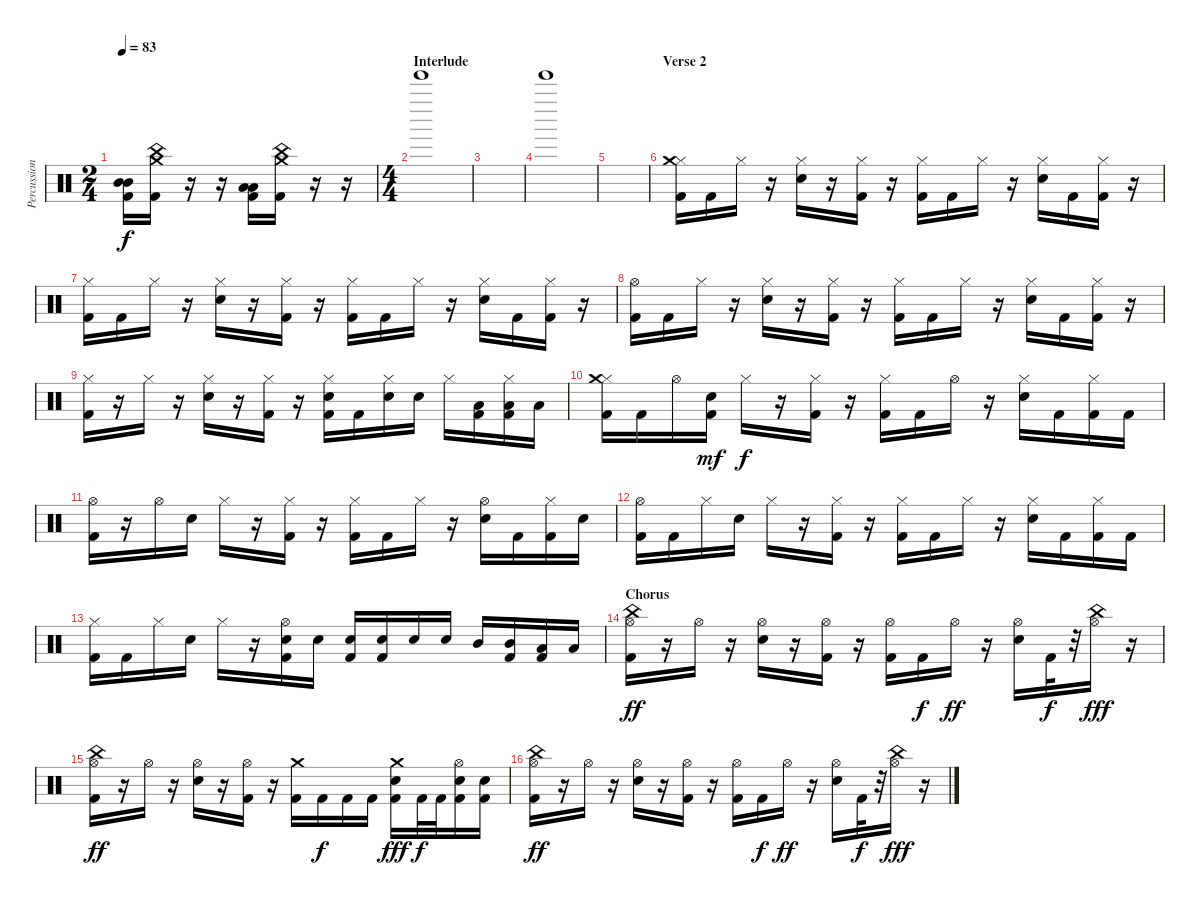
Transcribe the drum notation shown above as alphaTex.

\track ("Percussion" "Percussion") {instrument percussion}
\staff {score}
\articulation defaults
\ts (2 4)
\tempo 83
\clef neutral
\ks c
("Mid Tom (hit)" "Mid Tom (hit)" "Kick (hit) 2").16{dy f} ("Crash medium (hit)" "China (hit)" "Kick (hit) 2").16 r.16 r.16 ("Low Tom (hit)" "Low Tom (hit)" "Kick (hit) 2").16 ("China (hit)" "Crash medium (hit)" "Kick (hit) 2").16 r.16 r.16 |
\ts (4 4)
\section ("" "Interlude")
"Tinkle Bell (hit)".1 |
|
"Tinkle Bell (hit)".1 |
|
\section ("" "Verse 2")
("Hi-Hat (closed)" "Crash medium (hit)" "Kick (hit) 2").16 "Kick (hit) 2".16 "Hi-Hat (closed)".16 r.16 ("Hi-Hat (closed)" "Snare (hit) 2").16 r.16 ("Hi-Hat (closed)" "Kick (hit) 2").16 r.16 ("Hi-Hat (closed)" "Kick (hit) 2").16 "Kick (hit) 2".16 "Hi-Hat (closed)".16 r.16 ("Hi-Hat (closed)" "Snare (hit) 2").16 "Kick (hit) 2".16 ("Hi-Hat (closed)" "Kick (hit) 2").16 r.16 |
("Hi-Hat (closed)" "Kick (hit) 2").16 "Kick (hit) 2".16 "Hi-Hat (closed)".16 r.16 ("Hi-Hat (closed)" "Snare (hit) 2").16 r.16 ("Hi-Hat (closed)" "Kick (hit) 2").16 r.16 ("Hi-Hat (closed)" "Kick (hit) 2").16 "Kick (hit) 2".16 "Hi-Hat (closed)".16 r.16 ("Hi-Hat (closed)" "Snare (hit) 2").16 "Kick (hit) 2".16 ("Hi-Hat (closed)" "Kick (hit) 2").16 r.16 |
("Hi-Hat (open)" "Kick (hit) 2").16 "Kick (hit) 2".16 "Hi-Hat (closed)".16 r.16 ("Hi-Hat (closed)" "Snare (hit) 2").16 r.16 ("Hi-Hat (closed)" "Kick (hit) 2").16 r.16 ("Hi-Hat (closed)" "Kick (hit) 2").16 "Kick (hit) 2".16 "Hi-Hat (closed)".16 r.16 ("Hi-Hat (closed)" "Snare (hit) 2").16 "Kick (hit) 2".16 ("Hi-Hat (closed)" "Kick (hit) 2").16 r.16 |
("Hi-Hat (closed)" "Kick (hit) 2").16 r.16 "Hi-Hat (closed)".16 r.16 ("Hi-Hat (closed)" "Snare (hit) 2").16 r.16 ("Hi-Hat (closed)" "Kick (hit) 2").16 r.16 ("Hi-Hat (closed)" "Snare (hit) 2" "Kick (hit) 2").16 "Kick (hit) 2".16 ("Hi-Hat (closed)" "Snare (hit) 2").16 "Snare (hit) 2".16 "Hi-Hat (closed)".16 ("Low Tom (hit)" "Kick (hit) 2").16 ("Hi-Hat (closed)" "Low Tom (hit)" "Kick (hit) 2").16 "Low Tom (hit)".16 |
("Hi-Hat (closed)" "Crash medium (hit)" "Kick (hit) 2").16 "Kick (hit) 2".16 "Hi-Hat (open)".16 ("Snare (hit) 2" "Kick (hit) 2").16{dy mf} "Hi-Hat (closed)".16{dy f} r.16 ("Hi-Hat (closed)" "Kick (hit) 2").16 r.16 ("Hi-Hat (closed)" "Kick (hit) 2").16 "Kick (hit) 2".16 "Hi-Hat (open)".16 r.16 ("Hi-Hat (closed)" "Snare (hit) 2").16 "Kick (hit) 2".16 ("Hi-Hat (closed)" "Kick (hit) 2").16 "Kick (hit) 2".16 |
("Hi-Hat (open)" "Kick (hit) 2").16 r.16 "Hi-Hat (open)".16 "Snare (hit) 2".16 "Hi-Hat (closed)".16 r.16 ("Hi-Hat (closed)" "Kick (hit) 2").16 r.16 ("Hi-Hat (closed)" "Kick (hit) 2").16 "Kick (hit) 2".16 "Hi-Hat (closed)".16 r.16 ("Hi-Hat (open)" "Snare (hit) 2").16 "Kick (hit) 2".16 ("Hi-Hat (closed)" "Kick (hit) 2").16 "Snare (hit) 2".16 |
("Hi-Hat (open)" "Kick (hit) 2").16 "Kick (hit) 2".16 "Hi-Hat (closed)".16 "Snare (hit) 2".16 "Hi-Hat (closed)".16 r.16 ("Hi-Hat (closed)" "Kick (hit) 2").16 r.16 ("Hi-Hat (closed)" "Kick (hit) 2").16 "Kick (hit) 2".16 "Hi-Hat (closed)".16 r.16 ("Hi-Hat (closed)" "Snare (hit) 2").16 "Kick (hit) 2".16 ("Hi-Hat (closed)" "Kick (hit) 2").16 "Kick (hit) 2".16 |
("Hi-Hat (closed)" "Kick (hit) 2").16 "Kick (hit) 2".16 "Hi-Hat (closed)".16 "Snare (hit) 2".16 "Hi-Hat (closed)".16 r.16 ("Hi-Hat (open)" "Snare (hit) 2" "Kick (hit) 2").16 "Snare (hit) 2".16 ("Snare (hit) 2" "Kick (hit) 2").16 ("Snare (hit) 2" "Kick (hit) 2").16 "Snare (hit) 2".16 "Snare (hit) 2".16 "Mid Tom (hit)".16 ("Mid Tom (hit)" "Kick (hit) 2").16 ("Low Tom (hit)" "Kick (hit) 2").16 "Low Tom (hit)".16 |
\section ("" "Chorus")
("Hi-Hat (open)" "China (hit)" "Kick (hit) 2").16{dy ff} r.16 "Hi-Hat (open)".16 r.16 ("Hi-Hat (open)" "Snare (hit) 2").16 r.16 ("Hi-Hat (open)" "Kick (hit) 2").16 r.16 ("Hi-Hat (open)" "Kick (hit) 2").16 "Kick (hit) 2".16{dy f} "Hi-Hat (open)".16{dy ff} r.16 ("Hi-Hat (open)" "Snare (hit) 2").16 "Kick (hit) 2".32{dy f} r.32 ("China (hit)" "Hi-Hat (open)").16{dy fff} r.16 |
("Hi-Hat (open)" "China (hit)" "Kick (hit) 2").16{dy ff} r.16 "Hi-Hat (open)".16 r.16 ("Hi-Hat (open)" "Snare (hit) 2").16 r.16 ("Hi-Hat (open)" "Kick (hit) 2").16 r.16 ("Crash medium (hit)" "Kick (hit) 2").16 "Kick (hit) 2".16{dy f} "Kick (hit) 2".16 "Kick (hit) 2".16 ("Crash medium (hit)" "Snare (hit) 2" "Kick (hit) 2").16{dy fff} "Kick (hit) 2".32{dy f} "Kick (hit) 2".32 ("Hi-Hat (open)" "Snare (hit) 2" "Kick (hit) 2").16 ("Snare (hit) 2" "Kick (hit) 2").16 |
("Hi-Hat (open)" "China (hit)" "Kick (hit) 2").16{dy ff} r.16 "Hi-Hat (open)".16 r.16 ("Hi-Hat (open)" "Snare (hit) 2").16 r.16 ("Hi-Hat (open)" "Kick (hit) 2").16 r.16 ("Hi-Hat (open)" "Kick (hit) 2").16 "Kick (hit) 2".16{dy f} "Hi-Hat (open)".16{dy ff} r.16 ("Hi-Hat (open)" "Snare (hit) 2").16 "Kick (hit) 2".32{dy f} r.32 ("China (hit)" "Hi-Hat (open)").16{dy fff} r.16
